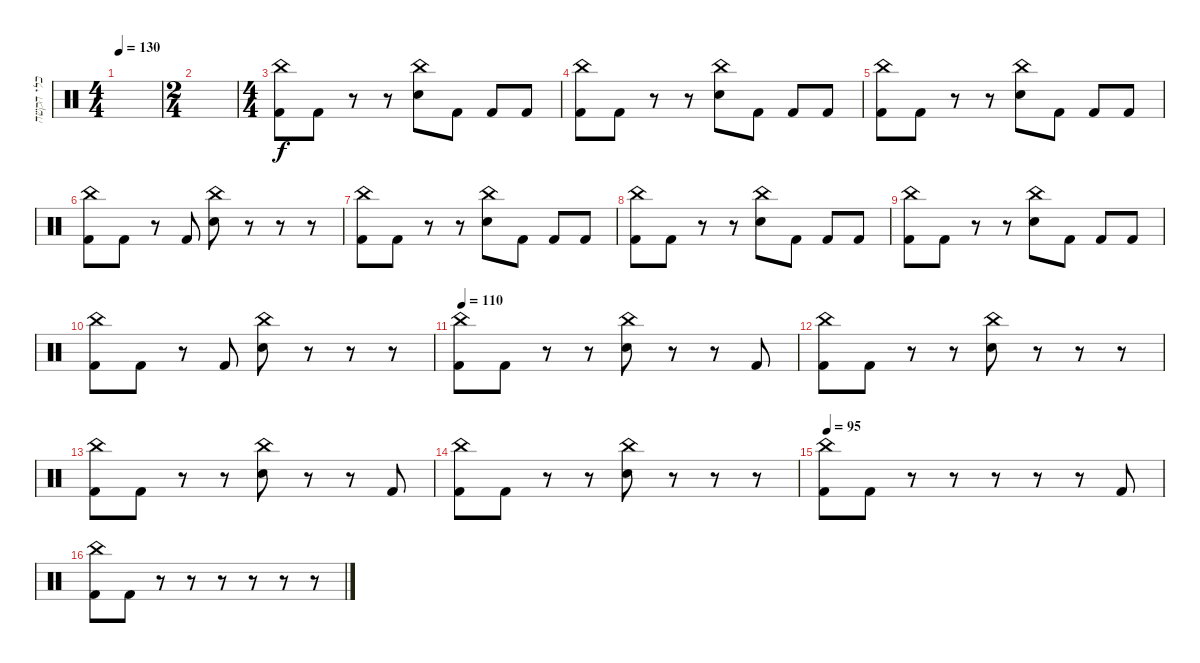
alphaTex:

\track ("כלי הקשה" "כלי הקשה") {instrument percussion}
\staff {score}
\articulation defaults
\ts (4 4)
\tempo 130
\clef neutral
\ks c
|
\ts (2 4)
|
\ts (4 4)
("China (hit)" "Kick (hit) 2").8 "Kick (hit) 2".8 r.8 r.8 ("China (hit)" "Snare (hit) 2").8 "Kick (hit) 2".8 "Kick (hit) 2".8 "Kick (hit) 2".8 |
("China (hit)" "Kick (hit) 2").8 "Kick (hit) 2".8 r.8 r.8 ("China (hit)" "Snare (hit) 2").8 "Kick (hit) 2".8 "Kick (hit) 2".8 "Kick (hit) 2".8 |
("China (hit)" "Kick (hit) 2").8 "Kick (hit) 2".8 r.8 r.8 ("China (hit)" "Snare (hit) 2").8 "Kick (hit) 2".8 "Kick (hit) 2".8 "Kick (hit) 2".8 |
("China (hit)" "Kick (hit) 2").8 "Kick (hit) 2".8 r.8 "Kick (hit) 2".8 ("China (hit)" "Snare (hit) 2").8 r.8 r.8 r.8 |
("China (hit)" "Kick (hit) 2").8 "Kick (hit) 2".8 r.8 r.8 ("China (hit)" "Snare (hit) 2").8 "Kick (hit) 2".8 "Kick (hit) 2".8 "Kick (hit) 2".8 |
("China (hit)" "Kick (hit) 2").8 "Kick (hit) 2".8 r.8 r.8 ("China (hit)" "Snare (hit) 2").8 "Kick (hit) 2".8 "Kick (hit) 2".8 "Kick (hit) 2".8 |
("China (hit)" "Kick (hit) 2").8 "Kick (hit) 2".8 r.8 r.8 ("China (hit)" "Snare (hit) 2").8 "Kick (hit) 2".8 "Kick (hit) 2".8 "Kick (hit) 2".8 |
("China (hit)" "Kick (hit) 2").8 "Kick (hit) 2".8 r.8 "Kick (hit) 2".8 ("China (hit)" "Snare (hit) 2").8 r.8 r.8 r.8 |
\tempo 110
("China (hit)" "Kick (hit) 2").8 "Kick (hit) 2".8 r.8 r.8 ("China (hit)" "Snare (hit) 2").8 r.8 r.8 "Kick (hit) 2".8 |
("China (hit)" "Kick (hit) 2").8 "Kick (hit) 2".8 r.8 r.8 ("China (hit)" "Snare (hit) 2").8 r.8 r.8 r.8 |
("China (hit)" "Kick (hit) 2").8 "Kick (hit) 2".8 r.8 r.8 ("China (hit)" "Snare (hit) 2").8 r.8 r.8 "Kick (hit) 2".8 |
("China (hit)" "Kick (hit) 2").8 "Kick (hit) 2".8 r.8 r.8 ("China (hit)" "Snare (hit) 2").8 r.8 r.8 r.8 |
\tempo 95
("China (hit)" "Kick (hit) 2").8 "Kick (hit) 2".8 r.8 r.8 r.8 r.8 r.8 "Kick (hit) 2".8 |
("China (hit)" "Kick (hit) 2").8 "Kick (hit) 2".8 r.8 r.8 r.8 r.8 r.8 r.8
